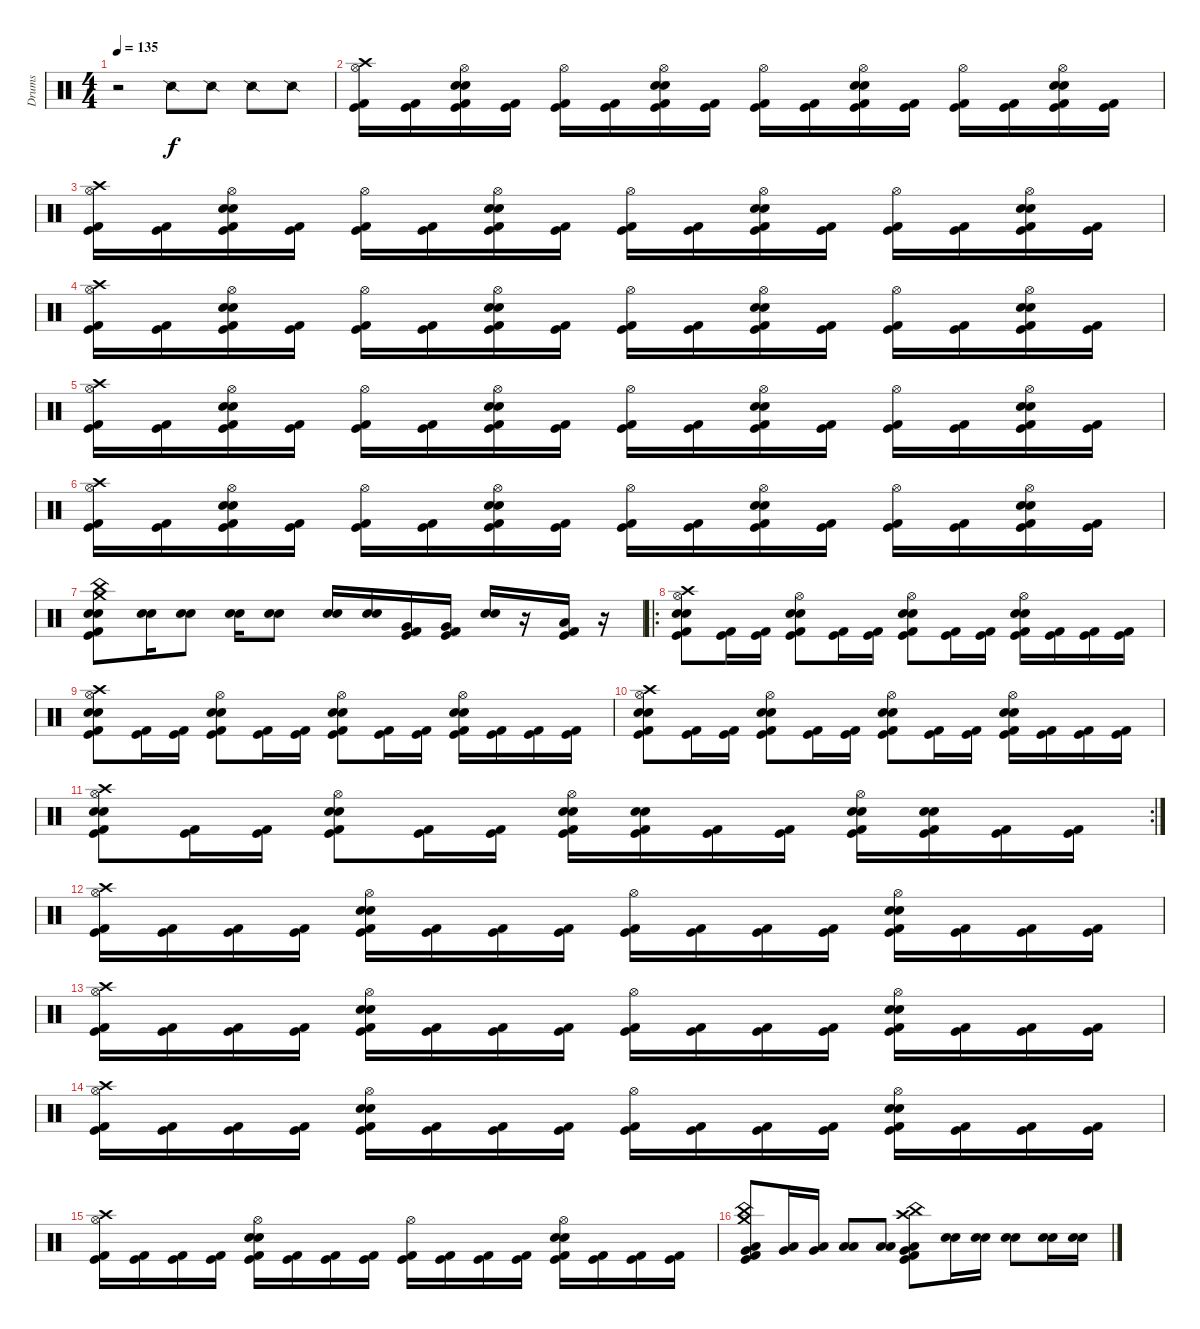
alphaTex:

\track ("Drums" "Drums") {instrument percussion}
\staff {score}
\articulation defaults
\ts (4 4)
\tempo 135
\clef neutral
\ks c
r.2{dy f} "Snare (side stick) 2".8 "Snare (side stick) 2".8 "Snare (side stick) 2".8 "Snare (side stick) 2".8 |
("Crash high (hit)" "Hi-Hat (open)" "Kick (hit) 2" "Kick (hit)").16 ("Kick (hit) 2" "Kick (hit)").16 ("Hi-Hat (open)" "Snare (hit) 2" "Electric Snare (hit)" "Kick (hit) 2" "Kick (hit)").16 ("Kick (hit) 2" "Kick (hit)").16 ("Hi-Hat (open)" "Kick (hit) 2" "Kick (hit)").16 ("Kick (hit) 2" "Kick (hit)").16 ("Hi-Hat (open)" "Snare (hit) 2" "Electric Snare (hit)" "Kick (hit) 2" "Kick (hit)").16 ("Kick (hit) 2" "Kick (hit)").16 ("Hi-Hat (open)" "Kick (hit) 2" "Kick (hit)").16 ("Kick (hit) 2" "Kick (hit)").16 ("Hi-Hat (open)" "Snare (hit) 2" "Electric Snare (hit)" "Kick (hit) 2" "Kick (hit)").16 ("Kick (hit) 2" "Kick (hit)").16 ("Hi-Hat (open)" "Kick (hit) 2" "Kick (hit)").16 ("Kick (hit) 2" "Kick (hit)").16 ("Hi-Hat (open)" "Snare (hit) 2" "Electric Snare (hit)" "Kick (hit) 2" "Kick (hit)").16 ("Kick (hit) 2" "Kick (hit)").16 |
("Crash high (hit)" "Hi-Hat (open)" "Kick (hit) 2" "Kick (hit)").16 ("Kick (hit) 2" "Kick (hit)").16 ("Hi-Hat (open)" "Snare (hit) 2" "Electric Snare (hit)" "Kick (hit) 2" "Kick (hit)").16 ("Kick (hit) 2" "Kick (hit)").16 ("Hi-Hat (open)" "Kick (hit) 2" "Kick (hit)").16 ("Kick (hit) 2" "Kick (hit)").16 ("Hi-Hat (open)" "Snare (hit) 2" "Electric Snare (hit)" "Kick (hit) 2" "Kick (hit)").16 ("Kick (hit) 2" "Kick (hit)").16 ("Hi-Hat (open)" "Kick (hit) 2" "Kick (hit)").16 ("Kick (hit) 2" "Kick (hit)").16 ("Hi-Hat (open)" "Snare (hit) 2" "Electric Snare (hit)" "Kick (hit) 2" "Kick (hit)").16 ("Kick (hit) 2" "Kick (hit)").16 ("Hi-Hat (open)" "Kick (hit) 2" "Kick (hit)").16 ("Kick (hit) 2" "Kick (hit)").16 ("Hi-Hat (open)" "Snare (hit) 2" "Electric Snare (hit)" "Kick (hit) 2" "Kick (hit)").16 ("Kick (hit) 2" "Kick (hit)").16 |
("Crash high (hit)" "Hi-Hat (open)" "Kick (hit) 2" "Kick (hit)").16 ("Kick (hit) 2" "Kick (hit)").16 ("Hi-Hat (open)" "Snare (hit) 2" "Electric Snare (hit)" "Kick (hit) 2" "Kick (hit)").16 ("Kick (hit) 2" "Kick (hit)").16 ("Hi-Hat (open)" "Kick (hit) 2" "Kick (hit)").16 ("Kick (hit) 2" "Kick (hit)").16 ("Hi-Hat (open)" "Snare (hit) 2" "Electric Snare (hit)" "Kick (hit) 2" "Kick (hit)").16 ("Kick (hit) 2" "Kick (hit)").16 ("Hi-Hat (open)" "Kick (hit) 2" "Kick (hit)").16 ("Kick (hit) 2" "Kick (hit)").16 ("Hi-Hat (open)" "Snare (hit) 2" "Electric Snare (hit)" "Kick (hit) 2" "Kick (hit)").16 ("Kick (hit) 2" "Kick (hit)").16 ("Hi-Hat (open)" "Kick (hit) 2" "Kick (hit)").16 ("Kick (hit) 2" "Kick (hit)").16 ("Hi-Hat (open)" "Snare (hit) 2" "Electric Snare (hit)" "Kick (hit) 2" "Kick (hit)").16 ("Kick (hit) 2" "Kick (hit)").16 |
("Crash high (hit)" "Hi-Hat (open)" "Kick (hit) 2" "Kick (hit)").16 ("Kick (hit) 2" "Kick (hit)").16 ("Hi-Hat (open)" "Snare (hit) 2" "Electric Snare (hit)" "Kick (hit) 2" "Kick (hit)").16 ("Kick (hit) 2" "Kick (hit)").16 ("Hi-Hat (open)" "Kick (hit) 2" "Kick (hit)").16 ("Kick (hit) 2" "Kick (hit)").16 ("Hi-Hat (open)" "Snare (hit) 2" "Electric Snare (hit)" "Kick (hit) 2" "Kick (hit)").16 ("Kick (hit) 2" "Kick (hit)").16 ("Hi-Hat (open)" "Kick (hit) 2" "Kick (hit)").16 ("Kick (hit) 2" "Kick (hit)").16 ("Hi-Hat (open)" "Snare (hit) 2" "Electric Snare (hit)" "Kick (hit) 2" "Kick (hit)").16 ("Kick (hit) 2" "Kick (hit)").16 ("Hi-Hat (open)" "Kick (hit) 2" "Kick (hit)").16 ("Kick (hit) 2" "Kick (hit)").16 ("Hi-Hat (open)" "Snare (hit) 2" "Electric Snare (hit)" "Kick (hit) 2" "Kick (hit)").16 ("Kick (hit) 2" "Kick (hit)").16 |
("Crash high (hit)" "Hi-Hat (open)" "Kick (hit) 2" "Kick (hit)").16 ("Kick (hit) 2" "Kick (hit)").16 ("Hi-Hat (open)" "Snare (hit) 2" "Electric Snare (hit)" "Kick (hit) 2" "Kick (hit)").16 ("Kick (hit) 2" "Kick (hit)").16 ("Hi-Hat (open)" "Kick (hit) 2" "Kick (hit)").16 ("Kick (hit) 2" "Kick (hit)").16 ("Hi-Hat (open)" "Snare (hit) 2" "Electric Snare (hit)" "Kick (hit) 2" "Kick (hit)").16 ("Kick (hit) 2" "Kick (hit)").16 ("Hi-Hat (open)" "Kick (hit) 2" "Kick (hit)").16 ("Kick (hit) 2" "Kick (hit)").16 ("Hi-Hat (open)" "Snare (hit) 2" "Electric Snare (hit)" "Kick (hit) 2" "Kick (hit)").16 ("Kick (hit) 2" "Kick (hit)").16 ("Hi-Hat (open)" "Kick (hit) 2" "Kick (hit)").16 ("Kick (hit) 2" "Kick (hit)").16 ("Hi-Hat (open)" "Snare (hit) 2" "Electric Snare (hit)" "Kick (hit) 2" "Kick (hit)").16 ("Kick (hit) 2" "Kick (hit)").16 |
("China (hit)" "Crash medium (hit)" "Electric Snare (hit)" "Snare (hit) 2" "Kick (hit) 2" "Kick (hit)").8 ("Electric Snare (hit)" "Snare (hit) 2").16 ("Electric Snare (hit)" "Snare (hit) 2").8 ("Electric Snare (hit)" "Snare (hit) 2").16 ("Electric Snare (hit)" "Snare (hit) 2").8 ("Electric Snare (hit)" "Snare (hit) 2").16 ("Electric Snare (hit)" "Snare (hit) 2").16 ("Very Low Tom (hit)" "Kick (hit) 2" "Kick (hit)").16 ("Very Low Tom (hit)" "Kick (hit) 2" "Kick (hit)").16 ("Electric Snare (hit)" "Snare (hit) 2").16 r.16 ("Low Tom (hit)" "Kick (hit) 2" "Kick (hit)").16 r.16 |
\ro
("Crash high (hit)" "Hi-Hat (open)" "Electric Snare (hit)" "Snare (hit) 2" "Kick (hit) 2" "Kick (hit)").8 ("Kick (hit) 2" "Kick (hit)").16 ("Kick (hit) 2" "Kick (hit)").16 ("Hi-Hat (open)" "Electric Snare (hit)" "Snare (hit) 2" "Kick (hit) 2" "Kick (hit)").8 ("Kick (hit) 2" "Kick (hit)").16 ("Kick (hit) 2" "Kick (hit)").16 ("Hi-Hat (open)" "Electric Snare (hit)" "Snare (hit) 2" "Kick (hit) 2" "Kick (hit)").8 ("Kick (hit) 2" "Kick (hit)").16 ("Kick (hit) 2" "Kick (hit)").16 ("Hi-Hat (open)" "Electric Snare (hit)" "Snare (hit) 2" "Kick (hit) 2" "Kick (hit)").16 ("Kick (hit) 2" "Kick (hit)").16 ("Kick (hit) 2" "Kick (hit)").16 ("Kick (hit) 2" "Kick (hit)").16 |
("Crash high (hit)" "Hi-Hat (open)" "Electric Snare (hit)" "Snare (hit) 2" "Kick (hit) 2" "Kick (hit)").8 ("Kick (hit) 2" "Kick (hit)").16 ("Kick (hit) 2" "Kick (hit)").16 ("Hi-Hat (open)" "Electric Snare (hit)" "Snare (hit) 2" "Kick (hit) 2" "Kick (hit)").8 ("Kick (hit) 2" "Kick (hit)").16 ("Kick (hit) 2" "Kick (hit)").16 ("Hi-Hat (open)" "Electric Snare (hit)" "Snare (hit) 2" "Kick (hit) 2" "Kick (hit)").8 ("Kick (hit) 2" "Kick (hit)").16 ("Kick (hit) 2" "Kick (hit)").16 ("Hi-Hat (open)" "Electric Snare (hit)" "Snare (hit) 2" "Kick (hit) 2" "Kick (hit)").16 ("Kick (hit) 2" "Kick (hit)").16 ("Kick (hit) 2" "Kick (hit)").16 ("Kick (hit) 2" "Kick (hit)").16 |
("Crash high (hit)" "Hi-Hat (open)" "Electric Snare (hit)" "Snare (hit) 2" "Kick (hit) 2" "Kick (hit)").8 ("Kick (hit) 2" "Kick (hit)").16 ("Kick (hit) 2" "Kick (hit)").16 ("Hi-Hat (open)" "Electric Snare (hit)" "Snare (hit) 2" "Kick (hit) 2" "Kick (hit)").8 ("Kick (hit) 2" "Kick (hit)").16 ("Kick (hit) 2" "Kick (hit)").16 ("Hi-Hat (open)" "Electric Snare (hit)" "Snare (hit) 2" "Kick (hit) 2" "Kick (hit)").8 ("Kick (hit) 2" "Kick (hit)").16 ("Kick (hit) 2" "Kick (hit)").16 ("Hi-Hat (open)" "Electric Snare (hit)" "Snare (hit) 2" "Kick (hit) 2" "Kick (hit)").16 ("Kick (hit) 2" "Kick (hit)").16 ("Kick (hit) 2" "Kick (hit)").16 ("Kick (hit) 2" "Kick (hit)").16 |
\rc 2
("Crash high (hit)" "Hi-Hat (open)" "Electric Snare (hit)" "Snare (hit) 2" "Kick (hit) 2" "Kick (hit)").8 ("Kick (hit) 2" "Kick (hit)").16 ("Kick (hit) 2" "Kick (hit)").16 ("Hi-Hat (open)" "Electric Snare (hit)" "Snare (hit) 2" "Kick (hit) 2" "Kick (hit)").8 ("Kick (hit) 2" "Kick (hit)").16 ("Kick (hit) 2" "Kick (hit)").16 ("Hi-Hat (open)" "Electric Snare (hit)" "Snare (hit) 2" "Kick (hit) 2" "Kick (hit)").16 ("Snare (hit) 2" "Snare (hit) 2" "Kick (hit) 2" "Kick (hit)").16 ("Kick (hit) 2" "Kick (hit)").16 ("Kick (hit) 2" "Kick (hit)").16 ("Hi-Hat (open)" "Electric Snare (hit)" "Snare (hit) 2" "Kick (hit) 2" "Kick (hit)").16 ("Snare (hit) 2" "Electric Snare (hit)" "Kick (hit) 2" "Kick (hit)").16 ("Kick (hit) 2" "Kick (hit)").16 ("Kick (hit) 2" "Kick (hit)").16 |
("Crash high (hit)" "Hi-Hat (open)" "Kick (hit) 2" "Kick (hit)").16 ("Kick (hit) 2" "Kick (hit)").16 ("Kick (hit) 2" "Kick (hit)").16 ("Kick (hit) 2" "Kick (hit)").16 ("Hi-Hat (open)" "Electric Snare (hit)" "Snare (hit) 2" "Kick (hit) 2" "Kick (hit)").16 ("Kick (hit) 2" "Kick (hit)").16 ("Kick (hit) 2" "Kick (hit)").16 ("Kick (hit) 2" "Kick (hit)").16 ("Hi-Hat (open)" "Kick (hit) 2" "Kick (hit)").16 ("Kick (hit) 2" "Kick (hit)").16 ("Kick (hit) 2" "Kick (hit)").16 ("Kick (hit) 2" "Kick (hit)").16 ("Hi-Hat (open)" "Electric Snare (hit)" "Snare (hit) 2" "Kick (hit) 2" "Kick (hit)").16 ("Kick (hit) 2" "Kick (hit)").16 ("Kick (hit) 2" "Kick (hit)").16 ("Kick (hit) 2" "Kick (hit)").16 |
("Crash high (hit)" "Hi-Hat (open)" "Kick (hit) 2" "Kick (hit)").16 ("Kick (hit) 2" "Kick (hit)").16 ("Kick (hit) 2" "Kick (hit)").16 ("Kick (hit) 2" "Kick (hit)").16 ("Hi-Hat (open)" "Electric Snare (hit)" "Snare (hit) 2" "Kick (hit) 2" "Kick (hit)").16 ("Kick (hit) 2" "Kick (hit)").16 ("Kick (hit) 2" "Kick (hit)").16 ("Kick (hit) 2" "Kick (hit)").16 ("Hi-Hat (open)" "Kick (hit) 2" "Kick (hit)").16 ("Kick (hit) 2" "Kick (hit)").16 ("Kick (hit) 2" "Kick (hit)").16 ("Kick (hit) 2" "Kick (hit)").16 ("Hi-Hat (open)" "Electric Snare (hit)" "Snare (hit) 2" "Kick (hit) 2" "Kick (hit)").16 ("Kick (hit) 2" "Kick (hit)").16 ("Kick (hit) 2" "Kick (hit)").16 ("Kick (hit) 2" "Kick (hit)").16 |
("Crash high (hit)" "Hi-Hat (open)" "Kick (hit) 2" "Kick (hit)").16 ("Kick (hit) 2" "Kick (hit)").16 ("Kick (hit) 2" "Kick (hit)").16 ("Kick (hit) 2" "Kick (hit)").16 ("Hi-Hat (open)" "Electric Snare (hit)" "Snare (hit) 2" "Kick (hit) 2" "Kick (hit)").16 ("Kick (hit) 2" "Kick (hit)").16 ("Kick (hit) 2" "Kick (hit)").16 ("Kick (hit) 2" "Kick (hit)").16 ("Hi-Hat (open)" "Kick (hit) 2" "Kick (hit)").16 ("Kick (hit) 2" "Kick (hit)").16 ("Kick (hit) 2" "Kick (hit)").16 ("Kick (hit) 2" "Kick (hit)").16 ("Hi-Hat (open)" "Electric Snare (hit)" "Snare (hit) 2" "Kick (hit) 2" "Kick (hit)").16 ("Kick (hit) 2" "Kick (hit)").16 ("Kick (hit) 2" "Kick (hit)").16 ("Kick (hit) 2" "Kick (hit)").16 |
("Crash high (hit)" "Hi-Hat (open)" "Kick (hit) 2" "Kick (hit)").16 ("Kick (hit) 2" "Kick (hit)").16 ("Kick (hit) 2" "Kick (hit)").16 ("Kick (hit) 2" "Kick (hit)").16 ("Hi-Hat (open)" "Electric Snare (hit)" "Snare (hit) 2" "Kick (hit) 2" "Kick (hit)").16 ("Kick (hit) 2" "Kick (hit)").16 ("Kick (hit) 2" "Kick (hit)").16 ("Kick (hit) 2" "Kick (hit)").16 ("Hi-Hat (open)" "Kick (hit) 2" "Kick (hit)").16 ("Kick (hit) 2" "Kick (hit)").16 ("Kick (hit) 2" "Kick (hit)").16 ("Kick (hit) 2" "Kick (hit)").16 ("Hi-Hat (open)" "Electric Snare (hit)" "Snare (hit) 2" "Kick (hit) 2" "Kick (hit)").16 ("Kick (hit) 2" "Kick (hit)").16 ("Kick (hit) 2" "Kick (hit)").16 ("Kick (hit) 2" "Kick (hit)").16 |
("Crash medium (hit)" "China (hit)" "Low Tom (hit)" "Very Low Tom (hit)" "Kick (hit) 2" "Kick (hit)").8 ("Low Tom (hit)" "Very Low Tom (hit)").16 ("Low Tom (hit)" "Very Low Tom (hit)").16 ("Low Tom (hit)" "Low Floor Tom (hit)").8 ("Low Tom (hit)" "Low Floor Tom (hit)").8 ("Crash high (hit)" "China (hit)" "Very Low Tom (hit)" "Low Tom (hit)" "Kick (hit) 2" "Kick (hit)").8 ("Electric Snare (hit)" "Snare (hit) 2").16 ("Electric Snare (hit)" "Snare (hit) 2").16 ("Electric Snare (hit)" "Snare (hit) 2").8 ("Electric Snare (hit)" "Snare (hit) 2").16 ("Electric Snare (hit)" "Snare (hit) 2").16
